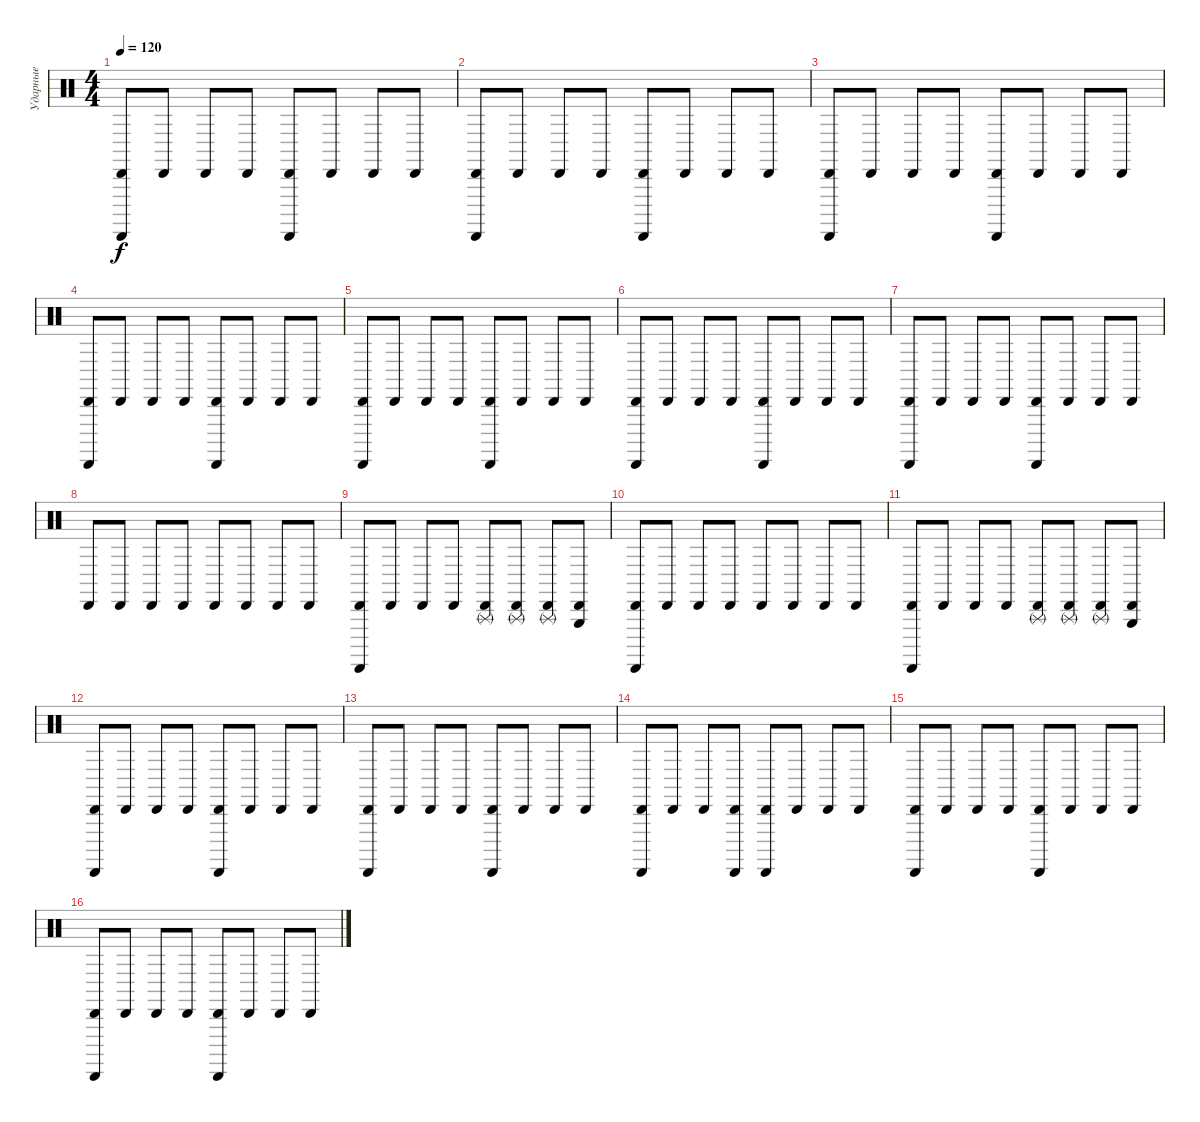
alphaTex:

\track ("Ударные" "Ударные") {instrument percussion}
\staff {score}
\articulation defaults
\ts (4 4)
\tempo 120
\clef neutral
\ks c
("Cabasa (hit)" "Guiro (scrap-return)").8{dy f} "Cabasa (hit)".8 "Cabasa (hit)".8 "Cabasa (hit)".8 ("Cabasa (hit)" "Guiro (scrap-return)").8 "Cabasa (hit)".8 "Cabasa (hit)".8 "Cabasa (hit)".8 |
("Cabasa (hit)" "Guiro (scrap-return)").8 "Cabasa (hit)".8 "Cabasa (hit)".8 "Cabasa (hit)".8 ("Cabasa (hit)" "Guiro (scrap-return)").8 "Cabasa (hit)".8 "Cabasa (hit)".8 "Cabasa (hit)".8 |
("Cabasa (hit)" "Guiro (scrap-return)").8 "Cabasa (hit)".8 "Cabasa (hit)".8 "Cabasa (hit)".8 ("Cabasa (hit)" "Guiro (scrap-return)").8 "Cabasa (hit)".8 "Cabasa (hit)".8 "Cabasa (hit)".8 |
("Cabasa (hit)" "Guiro (scrap-return)").8 "Cabasa (hit)".8 "Cabasa (hit)".8 "Cabasa (hit)".8 ("Cabasa (hit)" "Guiro (scrap-return)").8 "Cabasa (hit)".8 "Cabasa (hit)".8 "Cabasa (hit)".8 |
("Cabasa (hit)" "Guiro (scrap-return)").8 "Cabasa (hit)".8 "Cabasa (hit)".8 "Cabasa (hit)".8 ("Cabasa (hit)" "Guiro (scrap-return)").8 "Cabasa (hit)".8 "Cabasa (hit)".8 "Cabasa (hit)".8 |
("Cabasa (hit)" "Guiro (scrap-return)").8 "Cabasa (hit)".8 "Cabasa (hit)".8 "Cabasa (hit)".8 ("Cabasa (hit)" "Guiro (scrap-return)").8 "Cabasa (hit)".8 "Cabasa (hit)".8 "Cabasa (hit)".8 |
("Cabasa (hit)" "Guiro (scrap-return)").8 "Cabasa (hit)".8 "Cabasa (hit)".8 "Cabasa (hit)".8 ("Cabasa (hit)" "Guiro (scrap-return)").8 "Cabasa (hit)".8 "Cabasa (hit)".8 "Cabasa (hit)".8 |
"Cabasa (hit)".8 "Cabasa (hit)".8 "Cabasa (hit)".8 "Cabasa (hit)".8 "Cabasa (hit)".8 "Cabasa (hit)".8 "Cabasa (hit)".8 "Cabasa (hit)".8 |
("Cabasa (hit)" "Guiro (scrap-return)").8 "Cabasa (hit)".8 "Cabasa (hit)".8 "Cabasa (hit)".8 ("Cabasa (hit)" "Triangle (rnute)").8 ("Cabasa (hit)" "Triangle (rnute)").8 ("Cabasa (hit)" "Triangle (rnute)").8 ("Cabasa (hit)" "Triangle (hit)").8 |
("Cabasa (hit)" "Guiro (scrap-return)").8 "Cabasa (hit)".8 "Cabasa (hit)".8 "Cabasa (hit)".8 "Cabasa (hit)".8 "Cabasa (hit)".8 "Cabasa (hit)".8 "Cabasa (hit)".8 |
("Cabasa (hit)" "Guiro (scrap-return)").8 "Cabasa (hit)".8 "Cabasa (hit)".8 "Cabasa (hit)".8 ("Cabasa (hit)" "Triangle (rnute)").8 ("Cabasa (hit)" "Triangle (rnute)").8 ("Cabasa (hit)" "Triangle (rnute)").8 ("Cabasa (hit)" "Triangle (hit)").8 |
("Cabasa (hit)" "Guiro (scrap-return)").8 "Cabasa (hit)".8 "Cabasa (hit)".8 "Cabasa (hit)".8 ("Cabasa (hit)" "Guiro (scrap-return)").8 "Cabasa (hit)".8 "Cabasa (hit)".8 "Cabasa (hit)".8 |
("Cabasa (hit)" "Guiro (scrap-return)").8 "Cabasa (hit)".8 "Cabasa (hit)".8 "Cabasa (hit)".8 ("Cabasa (hit)" "Guiro (scrap-return)").8 "Cabasa (hit)".8 "Cabasa (hit)".8 "Cabasa (hit)".8 |
("Cabasa (hit)" "Guiro (scrap-return)").8 "Cabasa (hit)".8 "Cabasa (hit)".8 ("Cabasa (hit)" "Guiro (scrap-return)").8 ("Cabasa (hit)" "Guiro (scrap-return)").8 "Cabasa (hit)".8 "Cabasa (hit)".8 "Cabasa (hit)".8 |
("Cabasa (hit)" "Guiro (scrap-return)").8 "Cabasa (hit)".8 "Cabasa (hit)".8 "Cabasa (hit)".8 ("Cabasa (hit)" "Guiro (scrap-return)").8 "Cabasa (hit)".8 "Cabasa (hit)".8 "Cabasa (hit)".8 |
("Cabasa (hit)" "Guiro (scrap-return)").8 "Cabasa (hit)".8 "Cabasa (hit)".8 "Cabasa (hit)".8 ("Cabasa (hit)" "Guiro (scrap-return)").8 "Cabasa (hit)".8 "Cabasa (hit)".8 "Cabasa (hit)".8
